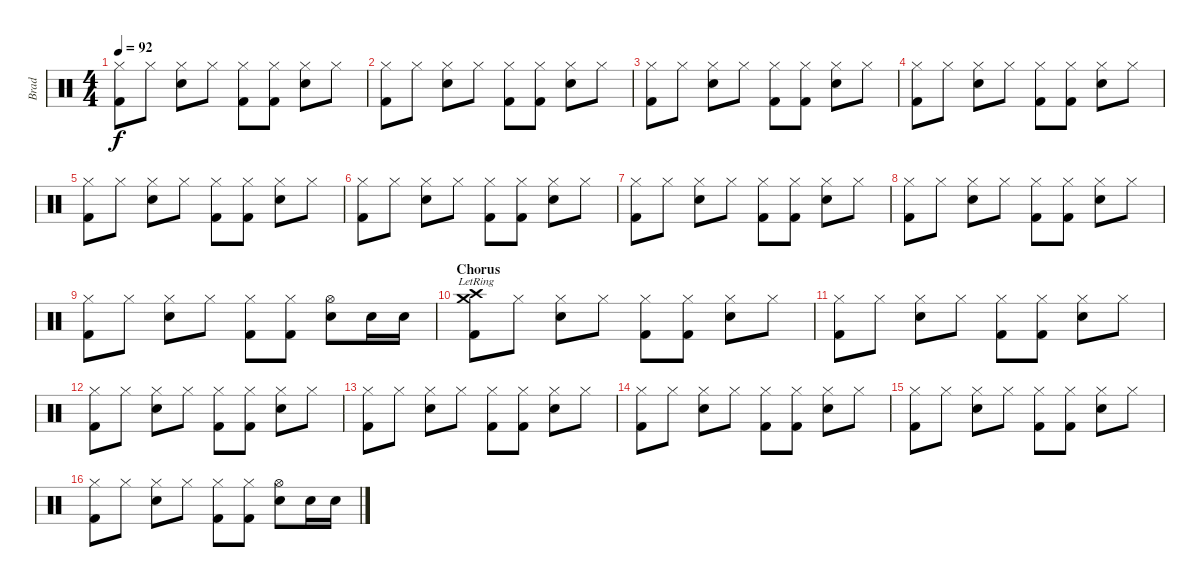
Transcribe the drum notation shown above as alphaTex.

\track ("Brad" "Brad") {instrument percussion}
\staff {score}
\articulation defaults
\ts (4 4)
\tempo 92
\clef neutral
\ks c
("Hi-Hat (closed)" "Kick (hit) 2").8{dy f} "Hi-Hat (closed)".8 ("Hi-Hat (closed)" "Electric Snare (hit)").8 "Hi-Hat (closed)".8 ("Hi-Hat (closed)" "Kick (hit) 2").8 ("Hi-Hat (closed)" "Kick (hit) 2").8 ("Hi-Hat (closed)" "Electric Snare (hit)").8 "Hi-Hat (closed)".8 |
("Hi-Hat (closed)" "Kick (hit) 2").8 "Hi-Hat (closed)".8 ("Hi-Hat (closed)" "Electric Snare (hit)").8 "Hi-Hat (closed)".8 ("Hi-Hat (closed)" "Kick (hit) 2").8 ("Hi-Hat (closed)" "Kick (hit) 2").8 ("Hi-Hat (closed)" "Electric Snare (hit)").8 "Hi-Hat (closed)".8 |
("Hi-Hat (closed)" "Kick (hit) 2").8 "Hi-Hat (closed)".8 ("Hi-Hat (closed)" "Electric Snare (hit)").8 "Hi-Hat (closed)".8 ("Hi-Hat (closed)" "Kick (hit) 2").8 ("Hi-Hat (closed)" "Kick (hit) 2").8 ("Hi-Hat (closed)" "Electric Snare (hit)").8 "Hi-Hat (closed)".8 |
("Hi-Hat (closed)" "Kick (hit) 2").8 "Hi-Hat (closed)".8 ("Hi-Hat (closed)" "Electric Snare (hit)").8 "Hi-Hat (closed)".8 ("Hi-Hat (closed)" "Kick (hit) 2").8 ("Hi-Hat (closed)" "Kick (hit) 2").8 ("Hi-Hat (closed)" "Electric Snare (hit)").8 "Hi-Hat (closed)".8 |
("Hi-Hat (closed)" "Kick (hit) 2").8 "Hi-Hat (closed)".8 ("Hi-Hat (closed)" "Electric Snare (hit)").8 "Hi-Hat (closed)".8 ("Hi-Hat (closed)" "Kick (hit) 2").8 ("Hi-Hat (closed)" "Kick (hit) 2").8 ("Hi-Hat (closed)" "Electric Snare (hit)").8 "Hi-Hat (closed)".8 |
("Hi-Hat (closed)" "Kick (hit) 2").8 "Hi-Hat (closed)".8 ("Hi-Hat (closed)" "Electric Snare (hit)").8 "Hi-Hat (closed)".8 ("Hi-Hat (closed)" "Kick (hit) 2").8 ("Hi-Hat (closed)" "Kick (hit) 2").8 ("Hi-Hat (closed)" "Electric Snare (hit)").8 "Hi-Hat (closed)".8 |
("Hi-Hat (closed)" "Kick (hit) 2").8 "Hi-Hat (closed)".8 ("Hi-Hat (closed)" "Electric Snare (hit)").8 "Hi-Hat (closed)".8 ("Hi-Hat (closed)" "Kick (hit) 2").8 ("Hi-Hat (closed)" "Kick (hit) 2").8 ("Hi-Hat (closed)" "Electric Snare (hit)").8 "Hi-Hat (closed)".8 |
("Hi-Hat (closed)" "Kick (hit) 2").8 "Hi-Hat (closed)".8 ("Hi-Hat (closed)" "Electric Snare (hit)").8 "Hi-Hat (closed)".8 ("Hi-Hat (closed)" "Kick (hit) 2").8 ("Hi-Hat (closed)" "Kick (hit) 2").8 ("Hi-Hat (closed)" "Electric Snare (hit)").8 "Hi-Hat (closed)".8 |
("Hi-Hat (closed)" "Kick (hit) 2").8 "Hi-Hat (closed)".8 ("Hi-Hat (closed)" "Electric Snare (hit)").8 "Hi-Hat (closed)".8 ("Hi-Hat (closed)" "Kick (hit) 2").8 ("Hi-Hat (closed)" "Kick (hit) 2").8 ("Hi-Hat (open)" "Electric Snare (hit)").8 "Electric Snare (hit)".16 "Electric Snare (hit)".16 |
\section ("" "Chorus")
("Crash high (hit)"{lr} "Crash medium (hit)"{lr} "Kick (hit) 2").8 "Hi-Hat (closed)".8 ("Hi-Hat (closed)" "Electric Snare (hit)").8 "Hi-Hat (closed)".8 ("Hi-Hat (closed)" "Kick (hit) 2").8 ("Hi-Hat (closed)" "Kick (hit) 2").8 ("Hi-Hat (closed)" "Electric Snare (hit)").8 "Hi-Hat (closed)".8 |
("Hi-Hat (closed)" "Kick (hit) 2").8 "Hi-Hat (closed)".8 ("Hi-Hat (closed)" "Electric Snare (hit)").8 "Hi-Hat (closed)".8 ("Hi-Hat (closed)" "Kick (hit) 2").8 ("Hi-Hat (closed)" "Kick (hit) 2").8 ("Hi-Hat (closed)" "Electric Snare (hit)").8 "Hi-Hat (closed)".8 |
("Hi-Hat (closed)" "Kick (hit) 2").8 "Hi-Hat (closed)".8 ("Hi-Hat (closed)" "Electric Snare (hit)").8 "Hi-Hat (closed)".8 ("Hi-Hat (closed)" "Kick (hit) 2").8 ("Hi-Hat (closed)" "Kick (hit) 2").8 ("Hi-Hat (closed)" "Electric Snare (hit)").8 "Hi-Hat (closed)".8 |
("Hi-Hat (closed)" "Kick (hit) 2").8 "Hi-Hat (closed)".8 ("Hi-Hat (closed)" "Electric Snare (hit)").8 "Hi-Hat (closed)".8 ("Hi-Hat (closed)" "Kick (hit) 2").8 ("Hi-Hat (closed)" "Kick (hit) 2").8 ("Hi-Hat (closed)" "Electric Snare (hit)").8 "Hi-Hat (closed)".8 |
("Hi-Hat (closed)" "Kick (hit) 2").8 "Hi-Hat (closed)".8 ("Hi-Hat (closed)" "Electric Snare (hit)").8 "Hi-Hat (closed)".8 ("Hi-Hat (closed)" "Kick (hit) 2").8 ("Hi-Hat (closed)" "Kick (hit) 2").8 ("Hi-Hat (closed)" "Electric Snare (hit)").8 "Hi-Hat (closed)".8 |
("Hi-Hat (closed)" "Kick (hit) 2").8 "Hi-Hat (closed)".8 ("Hi-Hat (closed)" "Electric Snare (hit)").8 "Hi-Hat (closed)".8 ("Hi-Hat (closed)" "Kick (hit) 2").8 ("Hi-Hat (closed)" "Kick (hit) 2").8 ("Hi-Hat (closed)" "Electric Snare (hit)").8 "Hi-Hat (closed)".8 |
("Hi-Hat (closed)" "Kick (hit) 2").8 "Hi-Hat (closed)".8 ("Hi-Hat (closed)" "Electric Snare (hit)").8 "Hi-Hat (closed)".8 ("Hi-Hat (closed)" "Kick (hit) 2").8 ("Hi-Hat (closed)" "Kick (hit) 2").8 ("Hi-Hat (open)" "Electric Snare (hit)").8 "Electric Snare (hit)".16 "Electric Snare (hit)".16
